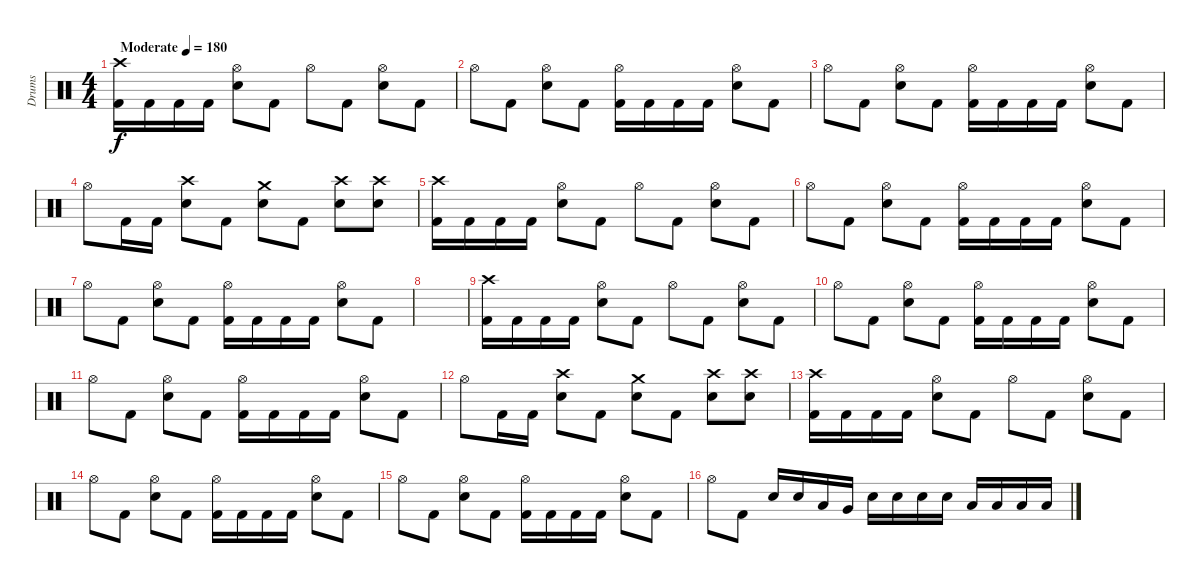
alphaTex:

\track ("Drums" "Drums") {instrument percussion}
\staff {score}
\articulation defaults
\ts (4 4)
\tempo (180 "Moderate")
\clef neutral
\ks c
("Crash high (hit)" "Kick (hit) 2").16{dy f volume 10} "Kick (hit) 2".16 "Kick (hit) 2".16 "Kick (hit) 2".16 ("Hi-Hat (open)" "Electric Snare (hit)").8 "Kick (hit) 2".8 "Hi-Hat (open)".8 "Kick (hit) 2".8 ("Hi-Hat (open)" "Electric Snare (hit)").8 "Kick (hit) 2".8 |
"Hi-Hat (open)".8 "Kick (hit) 2".8 ("Hi-Hat (open)" "Electric Snare (hit)").8 "Kick (hit) 2".8 ("Hi-Hat (open)" "Kick (hit) 2").16 "Kick (hit) 2".16 "Kick (hit) 2".16 "Kick (hit) 2".16 ("Hi-Hat (open)" "Electric Snare (hit)").8 "Kick (hit) 2".8 |
"Hi-Hat (open)".8 "Kick (hit) 2".8 ("Hi-Hat (open)" "Electric Snare (hit)").8 "Kick (hit) 2".8 ("Hi-Hat (open)" "Kick (hit) 2").16 "Kick (hit) 2".16 "Kick (hit) 2".16 "Kick (hit) 2".16 ("Hi-Hat (open)" "Electric Snare (hit)").8 "Kick (hit) 2".8 |
"Hi-Hat (open)".8 "Kick (hit) 2".16 "Kick (hit) 2".16 ("Crash high (hit)" "Electric Snare (hit)").8 "Kick (hit) 2".8 ("Crash medium (hit)" "Electric Snare (hit)").8 "Kick (hit) 2".8 ("Crash high (hit)" "Electric Snare (hit)").8 ("Crash high (hit)" "Electric Snare (hit)").8 |
("Crash high (hit)" "Kick (hit) 2").16 "Kick (hit) 2".16 "Kick (hit) 2".16 "Kick (hit) 2".16 ("Hi-Hat (open)" "Electric Snare (hit)").8 "Kick (hit) 2".8 "Hi-Hat (open)".8 "Kick (hit) 2".8 ("Hi-Hat (open)" "Electric Snare (hit)").8 "Kick (hit) 2".8 |
"Hi-Hat (open)".8 "Kick (hit) 2".8 ("Hi-Hat (open)" "Electric Snare (hit)").8 "Kick (hit) 2".8 ("Hi-Hat (open)" "Kick (hit) 2").16 "Kick (hit) 2".16 "Kick (hit) 2".16 "Kick (hit) 2".16 ("Hi-Hat (open)" "Electric Snare (hit)").8 "Kick (hit) 2".8 |
"Hi-Hat (open)".8 "Kick (hit) 2".8 ("Hi-Hat (open)" "Electric Snare (hit)").8 "Kick (hit) 2".8 ("Hi-Hat (open)" "Kick (hit) 2").16 "Kick (hit) 2".16 "Kick (hit) 2".16 "Kick (hit) 2".16 ("Hi-Hat (open)" "Electric Snare (hit)").8 "Kick (hit) 2".8 |
|
("Crash high (hit)" "Kick (hit) 2").16{volume 16} "Kick (hit) 2".16 "Kick (hit) 2".16 "Kick (hit) 2".16 ("Hi-Hat (open)" "Electric Snare (hit)").8 "Kick (hit) 2".8 "Hi-Hat (open)".8 "Kick (hit) 2".8 ("Hi-Hat (open)" "Electric Snare (hit)").8 "Kick (hit) 2".8 |
"Hi-Hat (open)".8 "Kick (hit) 2".8 ("Hi-Hat (open)" "Electric Snare (hit)").8 "Kick (hit) 2".8 ("Hi-Hat (open)" "Kick (hit) 2").16 "Kick (hit) 2".16 "Kick (hit) 2".16 "Kick (hit) 2".16 ("Hi-Hat (open)" "Electric Snare (hit)").8 "Kick (hit) 2".8 |
"Hi-Hat (open)".8 "Kick (hit) 2".8 ("Hi-Hat (open)" "Electric Snare (hit)").8 "Kick (hit) 2".8 ("Hi-Hat (open)" "Kick (hit) 2").16 "Kick (hit) 2".16 "Kick (hit) 2".16 "Kick (hit) 2".16 ("Hi-Hat (open)" "Electric Snare (hit)").8 "Kick (hit) 2".8 |
"Hi-Hat (open)".8 "Kick (hit) 2".16 "Kick (hit) 2".16 ("Crash high (hit)" "Electric Snare (hit)").8 "Kick (hit) 2".8 ("Crash medium (hit)" "Electric Snare (hit)").8 "Kick (hit) 2".8 ("Crash high (hit)" "Electric Snare (hit)").8 ("Crash high (hit)" "Electric Snare (hit)").8 |
("Crash high (hit)" "Kick (hit) 2").16 "Kick (hit) 2".16 "Kick (hit) 2".16 "Kick (hit) 2".16 ("Hi-Hat (open)" "Electric Snare (hit)").8 "Kick (hit) 2".8 "Hi-Hat (open)".8 "Kick (hit) 2".8 ("Hi-Hat (open)" "Electric Snare (hit)").8 "Kick (hit) 2".8 |
"Hi-Hat (open)".8 "Kick (hit) 2".8 ("Hi-Hat (open)" "Electric Snare (hit)").8 "Kick (hit) 2".8 ("Hi-Hat (open)" "Kick (hit) 2").16 "Kick (hit) 2".16 "Kick (hit) 2".16 "Kick (hit) 2".16 ("Hi-Hat (open)" "Electric Snare (hit)").8 "Kick (hit) 2".8 |
"Hi-Hat (open)".8 "Kick (hit) 2".8 ("Hi-Hat (open)" "Electric Snare (hit)").8 "Kick (hit) 2".8 ("Hi-Hat (open)" "Kick (hit) 2").16 "Kick (hit) 2".16 "Kick (hit) 2".16 "Kick (hit) 2".16 ("Hi-Hat (open)" "Electric Snare (hit)").8 "Kick (hit) 2".8 |
"Hi-Hat (open)".8 "Kick (hit) 2".8 "Electric Snare (hit)".16 "Electric Snare (hit)".16 "Low Tom (hit)".16 "Very Low Tom (hit)".16 "Electric Snare (hit)".16 "Electric Snare (hit)".16 "Electric Snare (hit)".16 "Electric Snare (hit)".16 "Low Tom (hit)".16 "Low Tom (hit)".16 "Low Tom (hit)".16 "Low Tom (hit)".16
